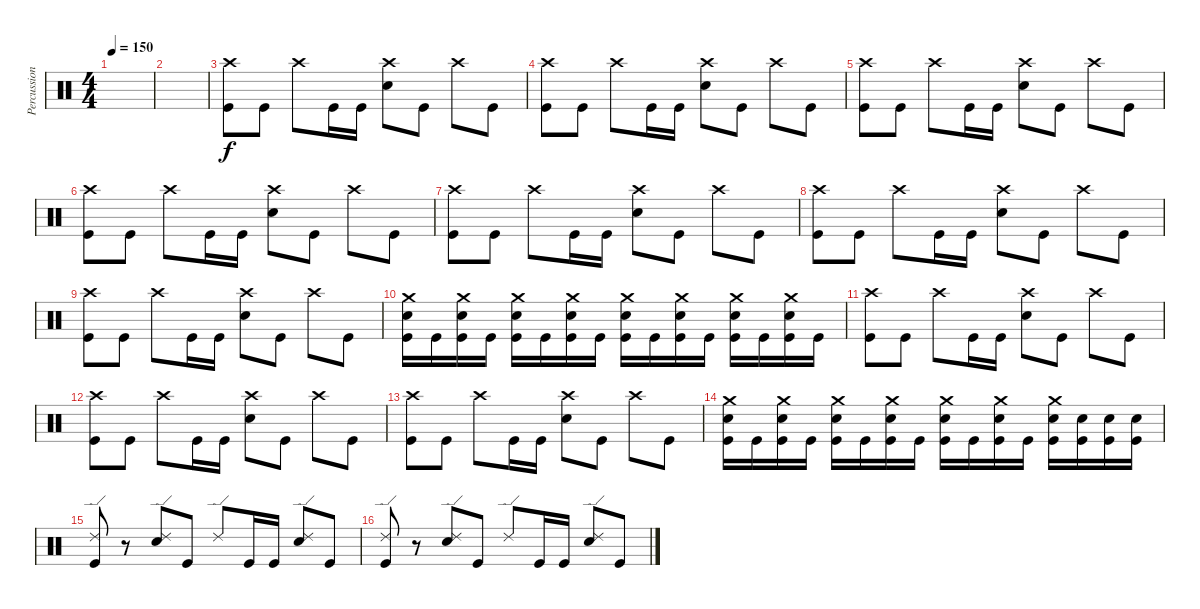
\track ("Percussion" "Percussion") {instrument percussion}
\staff {score}
\articulation defaults
\ts (4 4)
\tempo 150
\clef neutral
\ks c
|
|
("Crash high (hit)" "Kick (hit)").8 "Kick (hit)".8 "Crash high (hit)".8 "Kick (hit)".16 "Kick (hit)".16 ("Crash high (hit)" "Electric Snare (hit)").8 "Kick (hit)".8 "Crash high (hit)".8 "Kick (hit)".8 |
("Crash high (hit)" "Kick (hit)").8 "Kick (hit)".8 "Crash high (hit)".8 "Kick (hit)".16 "Kick (hit)".16 ("Crash high (hit)" "Electric Snare (hit)").8 "Kick (hit)".8 "Crash high (hit)".8 "Kick (hit)".8 |
("Crash high (hit)" "Kick (hit)").8 "Kick (hit)".8 "Crash high (hit)".8 "Kick (hit)".16 "Kick (hit)".16 ("Crash high (hit)" "Electric Snare (hit)").8 "Kick (hit)".8 "Crash high (hit)".8 "Kick (hit)".8 |
("Crash high (hit)" "Kick (hit)").8 "Kick (hit)".8 "Crash high (hit)".8 "Kick (hit)".16 "Kick (hit)".16 ("Crash high (hit)" "Electric Snare (hit)").8 "Kick (hit)".8 "Crash high (hit)".8 "Kick (hit)".8 |
("Crash high (hit)" "Kick (hit)").8 "Kick (hit)".8 "Crash high (hit)".8 "Kick (hit)".16 "Kick (hit)".16 ("Crash high (hit)" "Electric Snare (hit)").8 "Kick (hit)".8 "Crash high (hit)".8 "Kick (hit)".8 |
("Crash high (hit)" "Kick (hit)").8 "Kick (hit)".8 "Crash high (hit)".8 "Kick (hit)".16 "Kick (hit)".16 ("Crash high (hit)" "Electric Snare (hit)").8 "Kick (hit)".8 "Crash high (hit)".8 "Kick (hit)".8 |
("Crash high (hit)" "Kick (hit)").8 "Kick (hit)".8 "Crash high (hit)".8 "Kick (hit)".16 "Kick (hit)".16 ("Crash high (hit)" "Electric Snare (hit)").8 "Kick (hit)".8 "Crash high (hit)".8 "Kick (hit)".8 |
("Crash medium (hit)" "Electric Snare (hit)" "Kick (hit)").16 "Kick (hit)".16 ("Crash medium (hit)" "Electric Snare (hit)" "Kick (hit)").16 "Kick (hit)".16 ("Crash medium (hit)" "Electric Snare (hit)" "Kick (hit)").16 "Kick (hit)".16 ("Crash medium (hit)" "Electric Snare (hit)" "Kick (hit)").16 "Kick (hit)".16 ("Crash medium (hit)" "Electric Snare (hit)" "Kick (hit)").16 "Kick (hit)".16 ("Crash medium (hit)" "Electric Snare (hit)" "Kick (hit)").16 "Kick (hit)".16 ("Crash medium (hit)" "Electric Snare (hit)" "Kick (hit)").16 "Kick (hit)".16 ("Crash medium (hit)" "Electric Snare (hit)" "Kick (hit)").16 "Kick (hit)".16 |
("Crash high (hit)" "Kick (hit)").8 "Kick (hit)".8 "Crash high (hit)".8 "Kick (hit)".16 "Kick (hit)".16 ("Crash high (hit)" "Electric Snare (hit)").8 "Kick (hit)".8 "Crash high (hit)".8 "Kick (hit)".8 |
("Crash high (hit)" "Kick (hit)").8 "Kick (hit)".8 "Crash high (hit)".8 "Kick (hit)".16 "Kick (hit)".16 ("Crash high (hit)" "Electric Snare (hit)").8 "Kick (hit)".8 "Crash high (hit)".8 "Kick (hit)".8 |
("Crash high (hit)" "Kick (hit)").8 "Kick (hit)".8 "Crash high (hit)".8 "Kick (hit)".16 "Kick (hit)".16 ("Crash high (hit)" "Electric Snare (hit)").8 "Kick (hit)".8 "Crash high (hit)".8 "Kick (hit)".8 |
("Crash medium (hit)" "Electric Snare (hit)" "Kick (hit)").16 "Kick (hit)".16 ("Crash medium (hit)" "Electric Snare (hit)" "Kick (hit)").16 "Kick (hit)".16 ("Crash medium (hit)" "Electric Snare (hit)" "Kick (hit)").16 "Kick (hit)".16 ("Crash medium (hit)" "Electric Snare (hit)" "Kick (hit)").16 "Kick (hit)".16 ("Crash medium (hit)" "Electric Snare (hit)" "Kick (hit)").16 "Kick (hit)".16 ("Crash medium (hit)" "Electric Snare (hit)" "Kick (hit)").16 "Kick (hit)".16 ("Crash medium (hit)" "Electric Snare (hit)" "Kick (hit)").16 ("Electric Snare (hit)" "Kick (hit)").16 ("Electric Snare (hit)" "Kick (hit)").16 ("Electric Snare (hit)" "Kick (hit)").16 |
("Ride (edge) 2" "Kick (hit)").8 r.8 ("Ride (edge) 2" "Electric Snare (hit)").8 "Kick (hit)".8 "Ride (edge) 2".8 "Kick (hit)".16 "Kick (hit)".16 ("Ride (edge) 2" "Electric Snare (hit)").8 "Kick (hit)".8 |
("Ride (edge) 2" "Kick (hit)").8 r.8 ("Ride (edge) 2" "Electric Snare (hit)").8 "Kick (hit)".8 "Ride (edge) 2".8 "Kick (hit)".16 "Kick (hit)".16 ("Ride (edge) 2" "Electric Snare (hit)").8 "Kick (hit)".8
